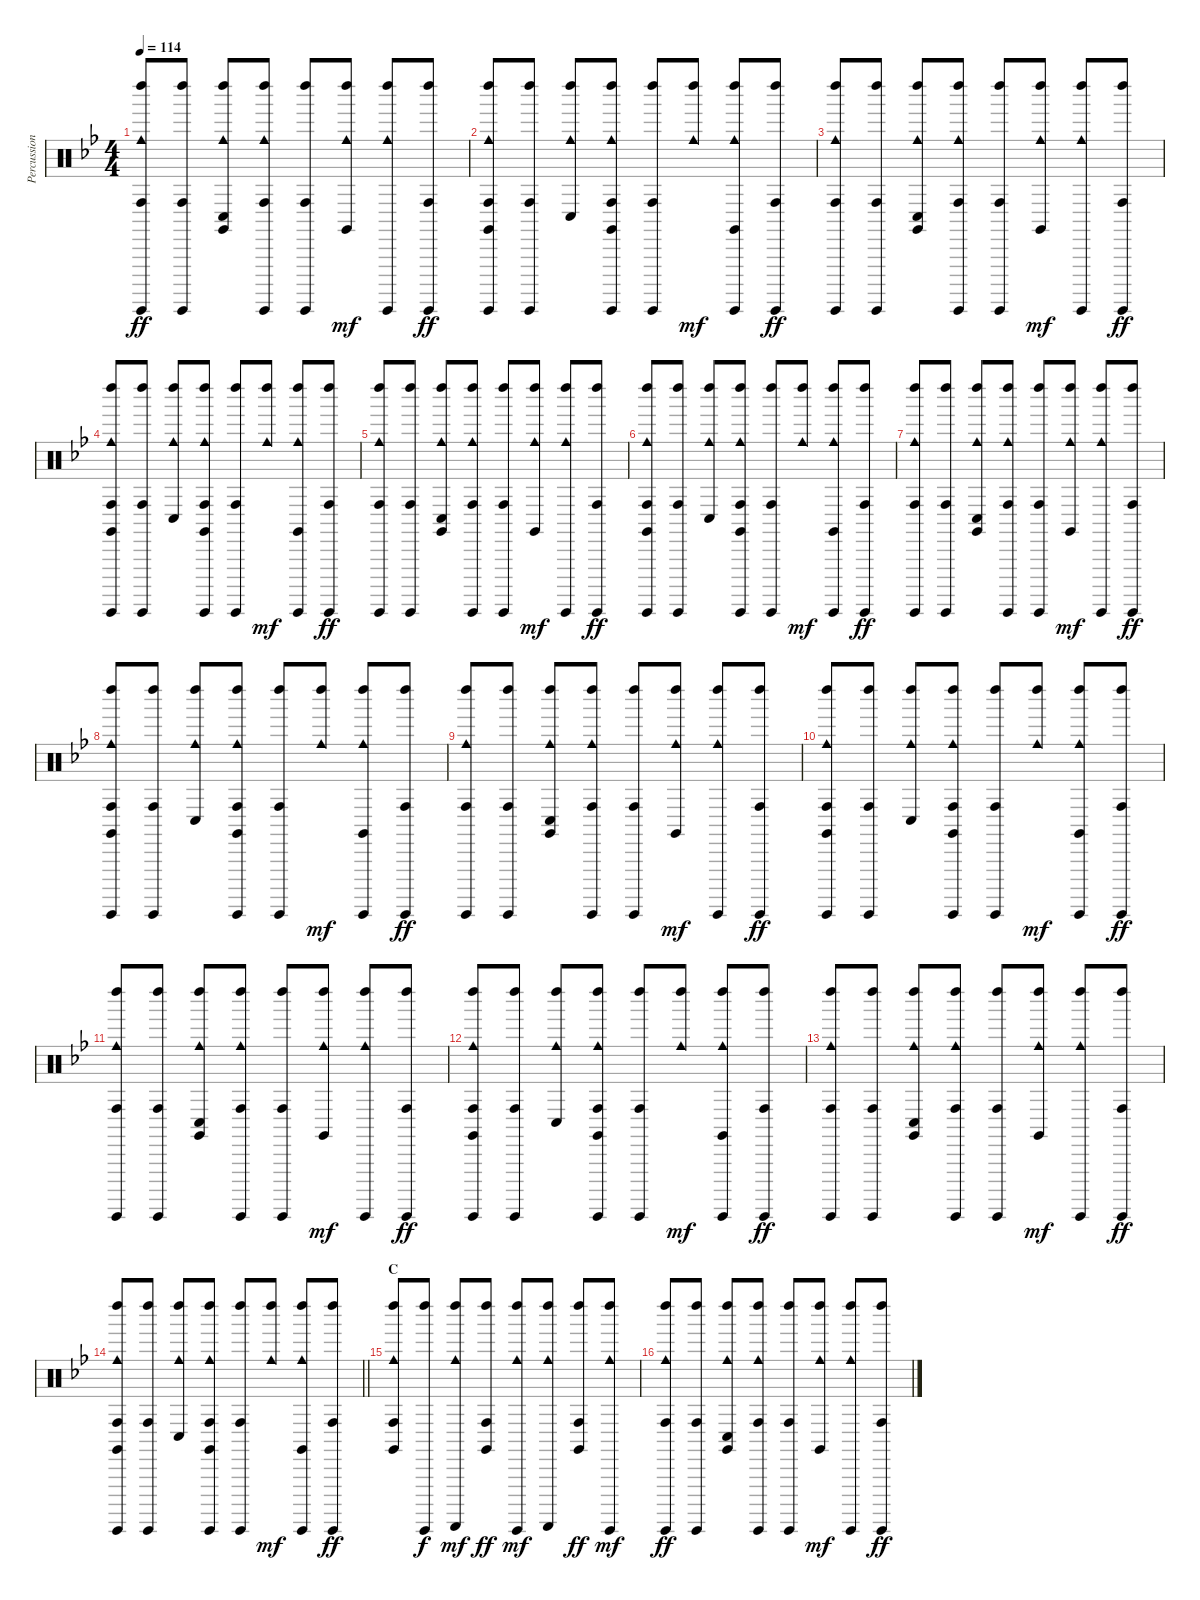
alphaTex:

\track ("Percussion" "Percussion") {instrument percussion}
\staff {score}
\articulation defaults
\ts (4 4)
\tempo 114
\clef neutral
\ks gminor
("Guiro (hit)" "Cowbell medium (hit)" "Conga high (hit)" "Left Maraca (hit)").8{dy ff} ("Guiro (hit)" "Conga high (hit)" "Left Maraca (hit)").8 ("Claves (hit)" "Cowbell medium (hit)" "Conga low (hit)" "Left Maraca (hit)").8 ("Guiro (hit)" "Cowbell medium (hit)" "Conga high (hit)" "Left Maraca (hit)").8 ("Guiro (hit)" "Conga high (hit)" "Left Maraca (hit)").8 ("Claves (hit)" "Cowbell medium (hit)" "Left Maraca (hit)").8{dy mf} ("Guiro (hit)" "Cowbell medium (hit)" "Left Maraca (hit)").8 ("Guiro (hit)" "Conga high (hit)" "Left Maraca (hit)").8{dy ff} |
("Claves (hit)" "Guiro (hit)" "Cowbell medium (hit)" "Conga high (hit)" "Left Maraca (hit)").8 ("Guiro (hit)" "Conga high (hit)" "Left Maraca (hit)").8 ("Cowbell medium (hit)" "Conga low (hit)" "Left Maraca (hit)").8 ("Claves (hit)" "Guiro (hit)" "Cowbell medium (hit)" "Conga high (hit)" "Left Maraca (hit)").8 ("Guiro (hit)" "Conga high (hit)" "Left Maraca (hit)").8 ("Cowbell medium (hit)" "Left Maraca (hit)").8{dy mf} ("Claves (hit)" "Guiro (hit)" "Cowbell medium (hit)" "Left Maraca (hit)").8 ("Guiro (hit)" "Conga high (hit)" "Left Maraca (hit)").8{dy ff} |
("Guiro (hit)" "Cowbell medium (hit)" "Conga high (hit)" "Left Maraca (hit)").8 ("Guiro (hit)" "Conga high (hit)" "Left Maraca (hit)").8 ("Claves (hit)" "Cowbell medium (hit)" "Conga low (hit)" "Left Maraca (hit)").8 ("Guiro (hit)" "Cowbell medium (hit)" "Conga high (hit)" "Left Maraca (hit)").8 ("Guiro (hit)" "Conga high (hit)" "Left Maraca (hit)").8 ("Claves (hit)" "Cowbell medium (hit)" "Left Maraca (hit)").8{dy mf} ("Guiro (hit)" "Cowbell medium (hit)" "Left Maraca (hit)").8 ("Guiro (hit)" "Conga high (hit)" "Left Maraca (hit)").8{dy ff} |
("Claves (hit)" "Guiro (hit)" "Cowbell medium (hit)" "Conga high (hit)" "Left Maraca (hit)").8 ("Guiro (hit)" "Conga high (hit)" "Left Maraca (hit)").8 ("Cowbell medium (hit)" "Conga low (hit)" "Left Maraca (hit)").8 ("Claves (hit)" "Guiro (hit)" "Cowbell medium (hit)" "Conga high (hit)" "Left Maraca (hit)").8 ("Guiro (hit)" "Conga high (hit)" "Left Maraca (hit)").8 ("Cowbell medium (hit)" "Left Maraca (hit)").8{dy mf} ("Claves (hit)" "Guiro (hit)" "Cowbell medium (hit)" "Left Maraca (hit)").8 ("Guiro (hit)" "Conga high (hit)" "Left Maraca (hit)").8{dy ff} |
("Guiro (hit)" "Cowbell medium (hit)" "Conga high (hit)" "Left Maraca (hit)").8 ("Guiro (hit)" "Conga high (hit)" "Left Maraca (hit)").8 ("Claves (hit)" "Cowbell medium (hit)" "Conga low (hit)" "Left Maraca (hit)").8 ("Guiro (hit)" "Cowbell medium (hit)" "Conga high (hit)" "Left Maraca (hit)").8 ("Guiro (hit)" "Conga high (hit)" "Left Maraca (hit)").8 ("Claves (hit)" "Cowbell medium (hit)" "Left Maraca (hit)").8{dy mf} ("Guiro (hit)" "Cowbell medium (hit)" "Left Maraca (hit)").8 ("Guiro (hit)" "Conga high (hit)" "Left Maraca (hit)").8{dy ff} |
("Claves (hit)" "Guiro (hit)" "Cowbell medium (hit)" "Conga high (hit)" "Left Maraca (hit)").8 ("Guiro (hit)" "Conga high (hit)" "Left Maraca (hit)").8 ("Cowbell medium (hit)" "Conga low (hit)" "Left Maraca (hit)").8 ("Claves (hit)" "Guiro (hit)" "Cowbell medium (hit)" "Conga high (hit)" "Left Maraca (hit)").8 ("Guiro (hit)" "Conga high (hit)" "Left Maraca (hit)").8 ("Cowbell medium (hit)" "Left Maraca (hit)").8{dy mf} ("Claves (hit)" "Guiro (hit)" "Cowbell medium (hit)" "Left Maraca (hit)").8 ("Guiro (hit)" "Conga high (hit)" "Left Maraca (hit)").8{dy ff} |
("Guiro (hit)" "Cowbell medium (hit)" "Conga high (hit)" "Left Maraca (hit)").8 ("Guiro (hit)" "Conga high (hit)" "Left Maraca (hit)").8 ("Claves (hit)" "Cowbell medium (hit)" "Conga low (hit)" "Left Maraca (hit)").8 ("Guiro (hit)" "Cowbell medium (hit)" "Conga high (hit)" "Left Maraca (hit)").8 ("Guiro (hit)" "Conga high (hit)" "Left Maraca (hit)").8 ("Claves (hit)" "Cowbell medium (hit)" "Left Maraca (hit)").8{dy mf} ("Guiro (hit)" "Cowbell medium (hit)" "Left Maraca (hit)").8 ("Guiro (hit)" "Conga high (hit)" "Left Maraca (hit)").8{dy ff} |
("Claves (hit)" "Guiro (hit)" "Cowbell medium (hit)" "Conga high (hit)" "Left Maraca (hit)").8 ("Guiro (hit)" "Conga high (hit)" "Left Maraca (hit)").8 ("Cowbell medium (hit)" "Conga low (hit)" "Left Maraca (hit)").8 ("Claves (hit)" "Guiro (hit)" "Cowbell medium (hit)" "Conga high (hit)" "Left Maraca (hit)").8 ("Guiro (hit)" "Conga high (hit)" "Left Maraca (hit)").8 ("Cowbell medium (hit)" "Left Maraca (hit)").8{dy mf} ("Claves (hit)" "Guiro (hit)" "Cowbell medium (hit)" "Left Maraca (hit)").8 ("Guiro (hit)" "Conga high (hit)" "Left Maraca (hit)").8{dy ff} |
("Guiro (hit)" "Cowbell medium (hit)" "Conga high (hit)" "Left Maraca (hit)").8 ("Guiro (hit)" "Conga high (hit)" "Left Maraca (hit)").8 ("Claves (hit)" "Cowbell medium (hit)" "Conga low (hit)" "Left Maraca (hit)").8 ("Guiro (hit)" "Cowbell medium (hit)" "Conga high (hit)" "Left Maraca (hit)").8 ("Guiro (hit)" "Conga high (hit)" "Left Maraca (hit)").8 ("Claves (hit)" "Cowbell medium (hit)" "Left Maraca (hit)").8{dy mf} ("Guiro (hit)" "Cowbell medium (hit)" "Left Maraca (hit)").8 ("Guiro (hit)" "Conga high (hit)" "Left Maraca (hit)").8{dy ff} |
("Claves (hit)" "Guiro (hit)" "Cowbell medium (hit)" "Conga high (hit)" "Left Maraca (hit)").8 ("Guiro (hit)" "Conga high (hit)" "Left Maraca (hit)").8 ("Cowbell medium (hit)" "Conga low (hit)" "Left Maraca (hit)").8 ("Claves (hit)" "Guiro (hit)" "Cowbell medium (hit)" "Conga high (hit)" "Left Maraca (hit)").8 ("Guiro (hit)" "Conga high (hit)" "Left Maraca (hit)").8 ("Cowbell medium (hit)" "Left Maraca (hit)").8{dy mf} ("Claves (hit)" "Guiro (hit)" "Cowbell medium (hit)" "Left Maraca (hit)").8 ("Guiro (hit)" "Conga high (hit)" "Left Maraca (hit)").8{dy ff} |
("Guiro (hit)" "Cowbell medium (hit)" "Conga high (hit)" "Left Maraca (hit)").8 ("Guiro (hit)" "Conga high (hit)" "Left Maraca (hit)").8 ("Claves (hit)" "Cowbell medium (hit)" "Conga low (hit)" "Left Maraca (hit)").8 ("Guiro (hit)" "Cowbell medium (hit)" "Conga high (hit)" "Left Maraca (hit)").8 ("Guiro (hit)" "Conga high (hit)" "Left Maraca (hit)").8 ("Claves (hit)" "Cowbell medium (hit)" "Left Maraca (hit)").8{dy mf} ("Guiro (hit)" "Cowbell medium (hit)" "Left Maraca (hit)").8 ("Guiro (hit)" "Conga high (hit)" "Left Maraca (hit)").8{dy ff} |
("Claves (hit)" "Guiro (hit)" "Cowbell medium (hit)" "Conga high (hit)" "Left Maraca (hit)").8 ("Guiro (hit)" "Conga high (hit)" "Left Maraca (hit)").8 ("Cowbell medium (hit)" "Conga low (hit)" "Left Maraca (hit)").8 ("Claves (hit)" "Guiro (hit)" "Cowbell medium (hit)" "Conga high (hit)" "Left Maraca (hit)").8 ("Guiro (hit)" "Conga high (hit)" "Left Maraca (hit)").8 ("Cowbell medium (hit)" "Left Maraca (hit)").8{dy mf} ("Claves (hit)" "Guiro (hit)" "Cowbell medium (hit)" "Left Maraca (hit)").8 ("Guiro (hit)" "Conga high (hit)" "Left Maraca (hit)").8{dy ff} |
("Guiro (hit)" "Cowbell medium (hit)" "Conga high (hit)" "Left Maraca (hit)").8 ("Guiro (hit)" "Conga high (hit)" "Left Maraca (hit)").8 ("Claves (hit)" "Cowbell medium (hit)" "Conga low (hit)" "Left Maraca (hit)").8 ("Guiro (hit)" "Cowbell medium (hit)" "Conga high (hit)" "Left Maraca (hit)").8 ("Guiro (hit)" "Conga high (hit)" "Left Maraca (hit)").8 ("Claves (hit)" "Cowbell medium (hit)" "Left Maraca (hit)").8{dy mf} ("Guiro (hit)" "Cowbell medium (hit)" "Left Maraca (hit)").8 ("Guiro (hit)" "Conga high (hit)" "Left Maraca (hit)").8{dy ff} |
\barLineRight lightlight
("Claves (hit)" "Guiro (hit)" "Cowbell medium (hit)" "Conga high (hit)" "Left Maraca (hit)").8 ("Guiro (hit)" "Conga high (hit)" "Left Maraca (hit)").8 ("Cowbell medium (hit)" "Conga low (hit)" "Left Maraca (hit)").8 ("Claves (hit)" "Guiro (hit)" "Cowbell medium (hit)" "Conga high (hit)" "Left Maraca (hit)").8 ("Guiro (hit)" "Conga high (hit)" "Left Maraca (hit)").8 ("Cowbell medium (hit)" "Left Maraca (hit)").8{dy mf} ("Claves (hit)" "Guiro (hit)" "Cowbell medium (hit)" "Left Maraca (hit)").8 ("Guiro (hit)" "Conga high (hit)" "Left Maraca (hit)").8{dy ff} |
\section ("" "C")
("Claves (hit)" "Cowbell medium (hit)" "Conga high (hit)" "Left Maraca (hit)").8{volume 12} ("Guiro (hit)" "Left Maraca (hit)").8{dy f} ("Guiro (scrap-return)" "Cowbell medium (hit)" "Left Maraca (hit)").8{dy mf} ("Claves (hit)" "Conga high (hit)" "Left Maraca (hit)").8{dy ff} ("Guiro (hit)" "Cowbell medium (hit)" "Left Maraca (hit)").8{dy mf} ("Guiro (scrap-return)" "Cowbell medium (hit)" "Left Maraca (hit)").8 ("Claves (hit)" "Conga high (hit)" "Left Maraca (hit)").8{dy ff} ("Guiro (hit)" "Cowbell medium (hit)" "Left Maraca (hit)").8{dy mf} |
("Guiro (hit)" "Cowbell medium (hit)" "Conga high (hit)" "Left Maraca (hit)").8{dy ff} ("Guiro (hit)" "Conga high (hit)" "Left Maraca (hit)").8 ("Claves (hit)" "Cowbell medium (hit)" "Conga low (hit)" "Left Maraca (hit)").8 ("Guiro (hit)" "Cowbell medium (hit)" "Conga high (hit)" "Left Maraca (hit)").8 ("Guiro (hit)" "Conga high (hit)" "Left Maraca (hit)").8 ("Claves (hit)" "Cowbell medium (hit)" "Left Maraca (hit)").8{dy mf} ("Guiro (hit)" "Cowbell medium (hit)" "Left Maraca (hit)").8 ("Guiro (hit)" "Conga high (hit)" "Left Maraca (hit)").8{dy ff}
